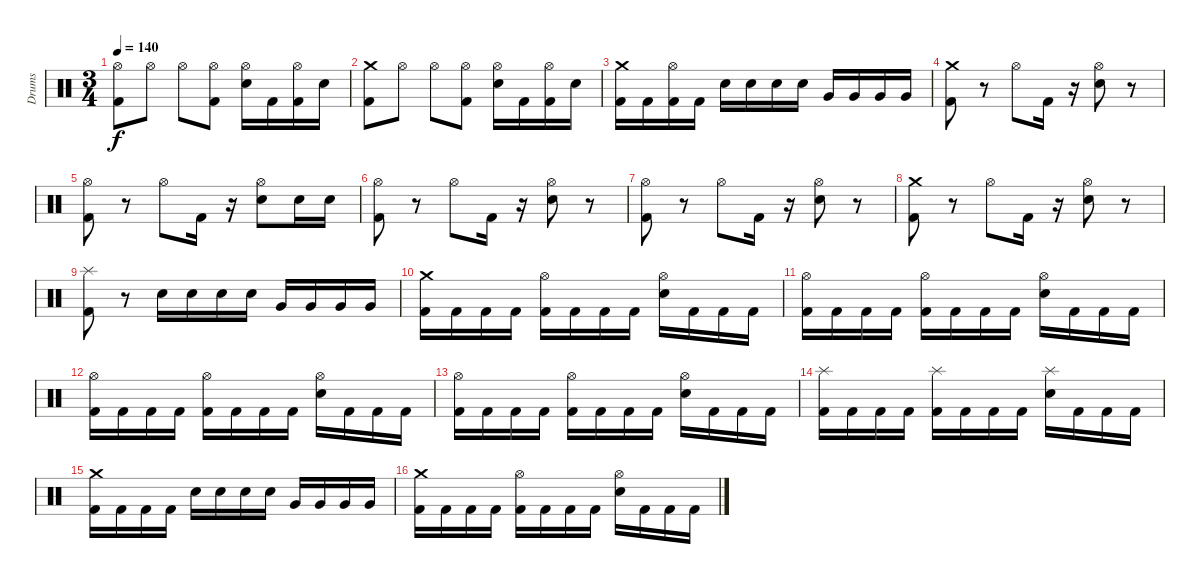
\track ("Drums" "Drums") {instrument percussion}
\staff {score}
\articulation defaults
\ts (3 4)
\tempo 140
\clef neutral
\ks c
("Kick (hit) 2" "Hi-Hat (open)").8{dy f} "Hi-Hat (open)".8 "Hi-Hat (open)".8 ("Kick (hit) 2" "Hi-Hat (open)").8 ("Electric Snare (hit)" "Hi-Hat (open)").16 "Kick (hit) 2".16 ("Kick (hit) 2" "Hi-Hat (open)").16 "Electric Snare (hit)".16 |
("Kick (hit) 2" "Crash medium (hit)").8 "Hi-Hat (open)".8 "Hi-Hat (open)".8 ("Kick (hit) 2" "Hi-Hat (open)").8 ("Electric Snare (hit)" "Hi-Hat (open)").16 "Kick (hit) 2".16 ("Kick (hit) 2" "Hi-Hat (open)").16 "Electric Snare (hit)".16 |
("Kick (hit) 2" "Crash medium (hit)").16 "Kick (hit) 2".16 ("Kick (hit) 2" "Hi-Hat (open)").16 "Kick (hit) 2".16 "Electric Snare (hit)".16 "Electric Snare (hit)".16 "Electric Snare (hit)".16 "Electric Snare (hit)".16 "Very Low Tom (hit)".16 "Very Low Tom (hit)".16 "Very Low Tom (hit)".16 "Very Low Tom (hit)".16 |
("Kick (hit) 2" "Crash medium (hit)").8 r.8 "Hi-Hat (open)".8 "Kick (hit) 2".16 r.16 ("Electric Snare (hit)" "Hi-Hat (open)").8 r.8 |
("Kick (hit) 2" "Hi-Hat (open)").8 r.8 "Hi-Hat (open)".8 "Kick (hit) 2".16 r.16 ("Electric Snare (hit)" "Hi-Hat (open)").8 "Electric Snare (hit)".16 "Electric Snare (hit)".16 |
("Kick (hit) 2" "Hi-Hat (open)").8 r.8 "Hi-Hat (open)".8 "Kick (hit) 2".16 r.16 ("Electric Snare (hit)" "Hi-Hat (open)").8 r.8 |
("Kick (hit) 2" "Hi-Hat (open)").8 r.8 "Hi-Hat (open)".8 "Kick (hit) 2".16 r.16 ("Electric Snare (hit)" "Hi-Hat (open)").8 r.8 |
("Kick (hit) 2" "Crash medium (hit)").8 r.8 "Hi-Hat (open)".8 "Kick (hit) 2".16 r.16 ("Electric Snare (hit)" "Hi-Hat (open)").8 r.8 |
("Kick (hit) 2" "Splash (hit)").8 r.8 "Electric Snare (hit)".16 "Electric Snare (hit)".16 "Electric Snare (hit)".16 "Electric Snare (hit)".16 "Very Low Tom (hit)".16 "Very Low Tom (hit)".16 "Very Low Tom (hit)".16 "Very Low Tom (hit)".16 |
("Kick (hit) 2" "Crash medium (hit)").16 "Kick (hit) 2".16 "Kick (hit) 2".16 "Kick (hit) 2".16 ("Kick (hit) 2" "Hi-Hat (open)").16 "Kick (hit) 2".16 "Kick (hit) 2".16 "Kick (hit) 2".16 ("Electric Snare (hit)" "Hi-Hat (open)").16 "Kick (hit) 2".16 "Kick (hit) 2".16 "Kick (hit) 2".16 |
("Kick (hit) 2" "Hi-Hat (open)").16 "Kick (hit) 2".16 "Kick (hit) 2".16 "Kick (hit) 2".16 ("Kick (hit) 2" "Hi-Hat (open)").16 "Kick (hit) 2".16 "Kick (hit) 2".16 "Kick (hit) 2".16 ("Electric Snare (hit)" "Hi-Hat (open)").16 "Kick (hit) 2".16 "Kick (hit) 2".16 "Kick (hit) 2".16 |
("Kick (hit) 2" "Hi-Hat (open)").16 "Kick (hit) 2".16 "Kick (hit) 2".16 "Kick (hit) 2".16 ("Kick (hit) 2" "Hi-Hat (open)").16 "Kick (hit) 2".16 "Kick (hit) 2".16 "Kick (hit) 2".16 ("Electric Snare (hit)" "Hi-Hat (open)").16 "Kick (hit) 2".16 "Kick (hit) 2".16 "Kick (hit) 2".16 |
("Kick (hit) 2" "Hi-Hat (open)").16 "Kick (hit) 2".16 "Kick (hit) 2".16 "Kick (hit) 2".16 ("Kick (hit) 2" "Hi-Hat (open)").16 "Kick (hit) 2".16 "Kick (hit) 2".16 "Kick (hit) 2".16 ("Electric Snare (hit)" "Hi-Hat (open)").16 "Kick (hit) 2".16 "Kick (hit) 2".16 "Kick (hit) 2".16 |
("Kick (hit) 2" "Splash (hit)").16 "Kick (hit) 2".16 "Kick (hit) 2".16 "Kick (hit) 2".16 ("Kick (hit) 2" "Splash (hit)").16 "Kick (hit) 2".16 "Kick (hit) 2".16 "Kick (hit) 2".16 ("Electric Snare (hit)" "Splash (hit)").16 "Kick (hit) 2".16 "Kick (hit) 2".16 "Kick (hit) 2".16 |
("Kick (hit) 2" "Crash medium (hit)").16 "Kick (hit) 2".16 "Kick (hit) 2".16 "Kick (hit) 2".16 "Electric Snare (hit)".16 "Electric Snare (hit)".16 "Electric Snare (hit)".16 "Electric Snare (hit)".16 "Very Low Tom (hit)".16 "Very Low Tom (hit)".16 "Very Low Tom (hit)".16 "Very Low Tom (hit)".16 |
("Kick (hit) 2" "Crash medium (hit)").16 "Kick (hit) 2".16 "Kick (hit) 2".16 "Kick (hit) 2".16 ("Kick (hit) 2" "Hi-Hat (open)").16 "Kick (hit) 2".16 "Kick (hit) 2".16 "Kick (hit) 2".16 ("Electric Snare (hit)" "Hi-Hat (open)").16 "Kick (hit) 2".16 "Kick (hit) 2".16 "Kick (hit) 2".16
